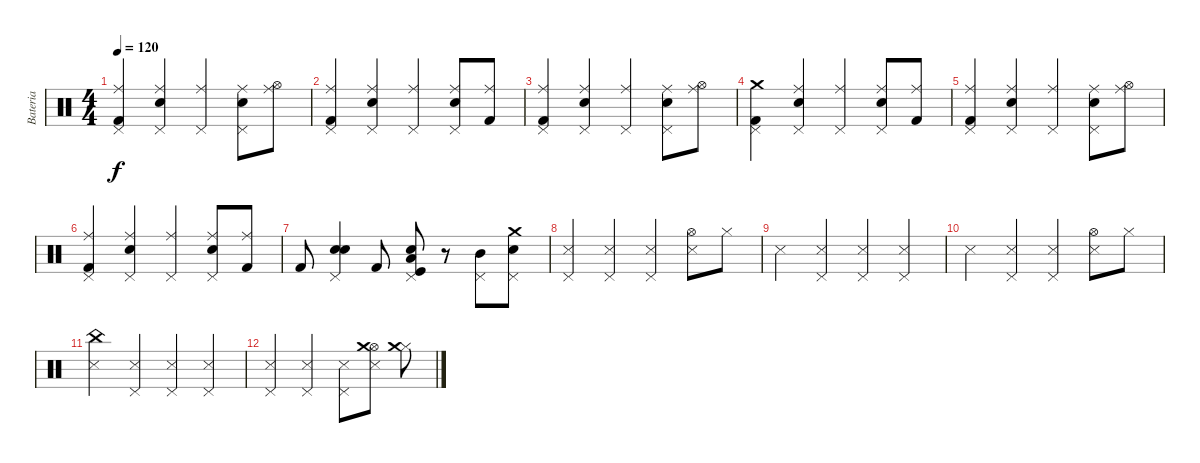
\track ("Bateria" "Bateria") {instrument percussion}
\staff {score}
\articulation defaults
\ts (4 4)
\tempo 120
\clef neutral
\ks c
("Pedal Hi-Hat (hit)" "Kick (hit) 2" "Ride (middle)").4{dy f} ("Pedal Hi-Hat (hit)" "Electric Snare (hit)" "Ride (middle)").4 ("Pedal Hi-Hat (hit)" "Ride (middle)").4 ("Pedal Hi-Hat (hit)" "Electric Snare (hit)" "Ride (middle)").8 ("Hi-Hat (open)" "Ride (middle)").8 |
("Pedal Hi-Hat (hit)" "Kick (hit) 2" "Ride (middle)").4 ("Pedal Hi-Hat (hit)" "Electric Snare (hit)" "Ride (middle)").4 ("Pedal Hi-Hat (hit)" "Ride (middle)").4 ("Pedal Hi-Hat (hit)" "Electric Snare (hit)" "Ride (middle)").8 ("Kick (hit) 2" "Ride (middle)").8 |
("Pedal Hi-Hat (hit)" "Kick (hit) 2" "Ride (middle)").4 ("Pedal Hi-Hat (hit)" "Electric Snare (hit)" "Ride (middle)").4 ("Pedal Hi-Hat (hit)" "Ride (middle)").4 ("Pedal Hi-Hat (hit)" "Electric Snare (hit)" "Ride (middle)").8 ("Hi-Hat (open)" "Ride (middle)").8 |
("Pedal Hi-Hat (hit)" "Kick (hit) 2" "Crash medium (hit)").4 ("Pedal Hi-Hat (hit)" "Electric Snare (hit)" "Ride (middle)").4 ("Pedal Hi-Hat (hit)" "Ride (middle)").4 ("Pedal Hi-Hat (hit)" "Electric Snare (hit)" "Ride (middle)").8 ("Kick (hit) 2" "Ride (middle)").8 |
("Pedal Hi-Hat (hit)" "Kick (hit) 2" "Ride (middle)").4 ("Pedal Hi-Hat (hit)" "Electric Snare (hit)" "Ride (middle)").4 ("Pedal Hi-Hat (hit)" "Ride (middle)").4 ("Pedal Hi-Hat (hit)" "Electric Snare (hit)" "Ride (middle)").8 ("Hi-Hat (open)" "Ride (middle)").8 |
("Pedal Hi-Hat (hit)" "Kick (hit) 2" "Ride (middle)").4 ("Pedal Hi-Hat (hit)" "Electric Snare (hit)" "Ride (middle)").4 ("Pedal Hi-Hat (hit)" "Ride (middle)").4 ("Pedal Hi-Hat (hit)" "Electric Snare (hit)" "Ride (middle)").8 ("Kick (hit) 2" "Ride (middle)").8 |
"Kick (hit) 2".8 ("Pedal Hi-Hat (hit)" "Electric Snare (hit)" "Snare (hit) 2").4 "Kick (hit) 2".8 ("Pedal Hi-Hat (hit)" "Electric Snare (hit)" "Kick (hit)" "Low Floor Tom (hit)").8 r.8 ("Pedal Hi-Hat (hit)" "Mid Tom (hit)").8 ("Pedal Hi-Hat (hit)" "Electric Snare (hit)" "Crash medium (hit)").8 |
("Snare (side stick) 3" "Pedal Hi-Hat (hit)").4 ("Snare (side stick) 3" "Pedal Hi-Hat (hit)").4 ("Snare (side stick) 3" "Pedal Hi-Hat (hit)").4 ("Snare (side stick) 3" "Hi-Hat (open)").8 "Hi-Hat (closed)".8 |
"Snare (side stick) 3".4 ("Snare (side stick) 3" "Pedal Hi-Hat (hit)").4 ("Snare (side stick) 3" "Pedal Hi-Hat (hit)").4 ("Snare (side stick) 3" "Pedal Hi-Hat (hit)").4 |
"Snare (side stick) 3".4 ("Snare (side stick) 3" "Pedal Hi-Hat (hit)").4 ("Snare (side stick) 3" "Pedal Hi-Hat (hit)").4 ("Snare (side stick) 3" "Hi-Hat (open)").8 "Hi-Hat (closed)".8 |
("Snare (side stick) 3" "China (hit)").4 ("Snare (side stick) 3" "Pedal Hi-Hat (hit)").4 ("Snare (side stick) 3" "Pedal Hi-Hat (hit)").4 ("Snare (side stick) 3" "Pedal Hi-Hat (hit)").4 |
("Snare (side stick) 3" "Pedal Hi-Hat (hit)").4 ("Snare (side stick) 3" "Pedal Hi-Hat (hit)").4 ("Snare (side stick) 3" "Pedal Hi-Hat (hit)").8 ("Snare (side stick) 3" "Hi-Hat (open)" "Crash medium (hit)").8 ("Hi-Hat (closed)" "Crash medium (hit)").8
